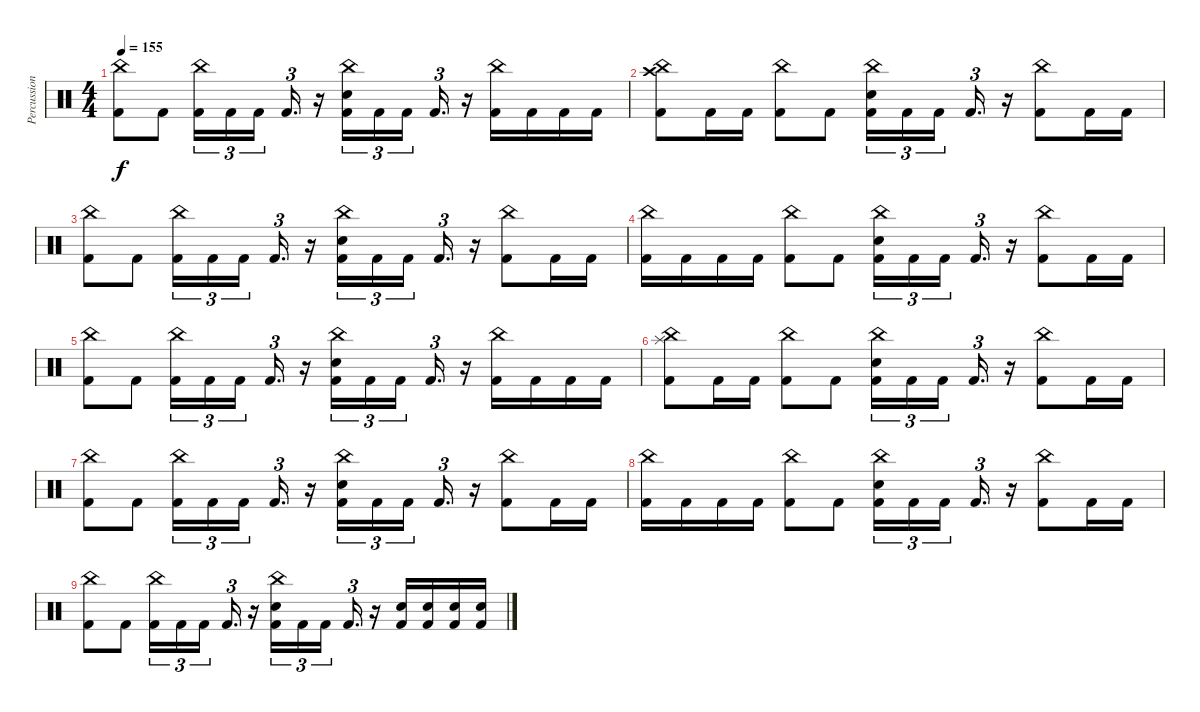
\track ("Percussion" "Percussion") {instrument percussion}
\staff {score}
\articulation defaults
\ts (4 4)
\tempo 155
\clef neutral
\ks c
("China (hit)" "Kick (hit) 2").8{dy f} "Kick (hit) 2".8 ("China (hit)" "Kick (hit) 2").16{tu (3 2)} "Kick (hit) 2".16{tu (3 2)} "Kick (hit) 2".16{tu (3 2) beam splitsecondary} "Kick (hit) 2".16{d tu (3 2)} r.16 ("Electric Snare (hit)" "China (hit)" "Kick (hit) 2").16{tu (3 2)} "Kick (hit) 2".16{tu (3 2)} "Kick (hit) 2".16{tu (3 2) beam splitsecondary} "Kick (hit) 2".16{d tu (3 2)} r.16 ("China (hit)" "Kick (hit) 2").16 "Kick (hit) 2".16 "Kick (hit) 2".16 "Kick (hit) 2".16 |
("Crash high (hit)" "China (hit)" "Kick (hit) 2").8 "Kick (hit) 2".16 "Kick (hit) 2".16 ("China (hit)" "Kick (hit) 2").8 "Kick (hit) 2".8 ("Electric Snare (hit)" "China (hit)" "Kick (hit) 2").16{tu (3 2)} "Kick (hit) 2".16{tu (3 2)} "Kick (hit) 2".16{tu (3 2) beam splitsecondary} "Kick (hit) 2".16{d tu (3 2)} r.16 ("China (hit)" "Kick (hit) 2").8 "Kick (hit) 2".16 "Kick (hit) 2".16 |
("China (hit)" "Kick (hit) 2").8 "Kick (hit) 2".8 ("China (hit)" "Kick (hit) 2").16{tu (3 2)} "Kick (hit) 2".16{tu (3 2)} "Kick (hit) 2".16{tu (3 2) beam splitsecondary} "Kick (hit) 2".16{d tu (3 2)} r.16 ("Electric Snare (hit)" "China (hit)" "Kick (hit) 2").16{tu (3 2)} "Kick (hit) 2".16{tu (3 2)} "Kick (hit) 2".16{tu (3 2) beam splitsecondary} "Kick (hit) 2".16{d tu (3 2)} r.16 ("China (hit)" "Kick (hit) 2").8 "Kick (hit) 2".16 "Kick (hit) 2".16 |
("China (hit)" "Kick (hit) 2").16 "Kick (hit) 2".16 "Kick (hit) 2".16 "Kick (hit) 2".16 ("China (hit)" "Kick (hit) 2").8 "Kick (hit) 2".8 ("Electric Snare (hit)" "China (hit)" "Kick (hit) 2").16{tu (3 2)} "Kick (hit) 2".16{tu (3 2)} "Kick (hit) 2".16{tu (3 2) beam splitsecondary} "Kick (hit) 2".16{d tu (3 2)} r.16 ("China (hit)" "Kick (hit) 2").8 "Kick (hit) 2".16 "Kick (hit) 2".16 |
("China (hit)" "Kick (hit) 2").8 "Kick (hit) 2".8 ("China (hit)" "Kick (hit) 2").16{tu (3 2)} "Kick (hit) 2".16{tu (3 2)} "Kick (hit) 2".16{tu (3 2) beam splitsecondary} "Kick (hit) 2".16{d tu (3 2)} r.16 ("Electric Snare (hit)" "China (hit)" "Kick (hit) 2").16{tu (3 2)} "Kick (hit) 2".16{tu (3 2)} "Kick (hit) 2".16{tu (3 2) beam splitsecondary} "Kick (hit) 2".16{d tu (3 2)} r.16 ("China (hit)" "Kick (hit) 2").16 "Kick (hit) 2".16 "Kick (hit) 2".16 "Kick (hit) 2".16 |
("Splash (hit)" "China (hit)" "Kick (hit) 2").8 "Kick (hit) 2".16 "Kick (hit) 2".16 ("China (hit)" "Kick (hit) 2").8 "Kick (hit) 2".8 ("Electric Snare (hit)" "China (hit)" "Kick (hit) 2").16{tu (3 2)} "Kick (hit) 2".16{tu (3 2)} "Kick (hit) 2".16{tu (3 2) beam splitsecondary} "Kick (hit) 2".16{d tu (3 2)} r.16 ("China (hit)" "Kick (hit) 2").8 "Kick (hit) 2".16 "Kick (hit) 2".16 |
("China (hit)" "Kick (hit) 2").8 "Kick (hit) 2".8 ("China (hit)" "Kick (hit) 2").16{tu (3 2)} "Kick (hit) 2".16{tu (3 2)} "Kick (hit) 2".16{tu (3 2) beam splitsecondary} "Kick (hit) 2".16{d tu (3 2)} r.16 ("Electric Snare (hit)" "China (hit)" "Kick (hit) 2").16{tu (3 2)} "Kick (hit) 2".16{tu (3 2)} "Kick (hit) 2".16{tu (3 2) beam splitsecondary} "Kick (hit) 2".16{d tu (3 2)} r.16 ("China (hit)" "Kick (hit) 2").8 "Kick (hit) 2".16 "Kick (hit) 2".16 |
("China (hit)" "Kick (hit) 2").16 "Kick (hit) 2".16 "Kick (hit) 2".16 "Kick (hit) 2".16 ("China (hit)" "Kick (hit) 2").8 "Kick (hit) 2".8 ("Electric Snare (hit)" "China (hit)" "Kick (hit) 2").16{tu (3 2)} "Kick (hit) 2".16{tu (3 2)} "Kick (hit) 2".16{tu (3 2) beam splitsecondary} "Kick (hit) 2".16{d tu (3 2)} r.16 ("China (hit)" "Kick (hit) 2").8 "Kick (hit) 2".16 "Kick (hit) 2".16 |
("China (hit)" "Kick (hit) 2").8 "Kick (hit) 2".8 ("China (hit)" "Kick (hit) 2").16{tu (3 2)} "Kick (hit) 2".16{tu (3 2)} "Kick (hit) 2".16{tu (3 2) beam splitsecondary} "Kick (hit) 2".16{d tu (3 2)} r.16 ("Electric Snare (hit)" "China (hit)" "Kick (hit) 2").16{tu (3 2)} "Kick (hit) 2".16{tu (3 2)} "Kick (hit) 2".16{tu (3 2) beam splitsecondary} "Kick (hit) 2".16{d tu (3 2)} r.16 ("Electric Snare (hit)" "Kick (hit) 2").16 ("Electric Snare (hit)" "Kick (hit) 2").16 ("Electric Snare (hit)" "Kick (hit) 2").16 ("Electric Snare (hit)" "Kick (hit) 2").16
